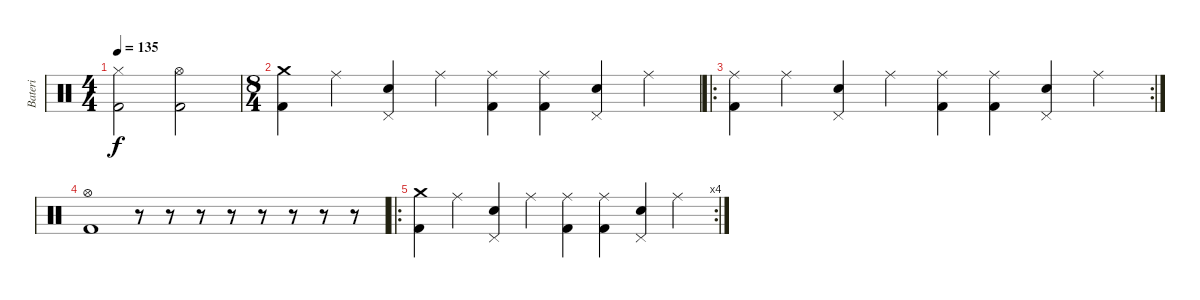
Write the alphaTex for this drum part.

\track ("Bateri" "Bateri") {instrument percussion}
\staff {score}
\articulation defaults
\ts (4 4)
\tempo 135
\clef neutral
\ks c
("Hi-Hat (closed)" "Kick (hit) 2").2{dy f} ("Hi-Hat (open)" "Kick (hit) 2").2 |
\ts (8 4)
\section ("" "")
("Crash medium (hit)" "Kick (hit) 2").4 "Ride (middle)".4 ("Pedal Hi-Hat (hit)" "Snare (hit) 2").4 "Ride (middle)".4 ("Ride (middle)" "Kick (hit) 2").4 ("Ride (middle)" "Kick (hit) 2").4 ("Pedal Hi-Hat (hit)" "Snare (hit) 2").4 "Ride (middle)".4 |
\ro
\rc 2
\section ("" "")
("Ride (middle)" "Kick (hit) 2").4 "Ride (middle)".4 ("Pedal Hi-Hat (hit)" "Snare (hit) 2").4 "Ride (middle)".4 ("Ride (middle)" "Kick (hit) 2").4 ("Ride (middle)" "Kick (hit) 2").4 ("Pedal Hi-Hat (hit)" "Snare (hit) 2").4 "Ride (middle)".4 |
\section ("" "")
("Hi-Hat (open)" "Kick (hit) 2").1 r.8 r.8 r.8 r.8 r.8 r.8 r.8 r.8 |
\ro
\rc 4
("Crash medium (hit)" "Kick (hit) 2").4 "Ride (middle)".4 ("Pedal Hi-Hat (hit)" "Snare (hit) 2").4 "Ride (middle)".4 ("Ride (middle)" "Kick (hit) 2").4 ("Ride (middle)" "Kick (hit) 2").4 ("Pedal Hi-Hat (hit)" "Snare (hit) 2").4 "Ride (middle)".4
